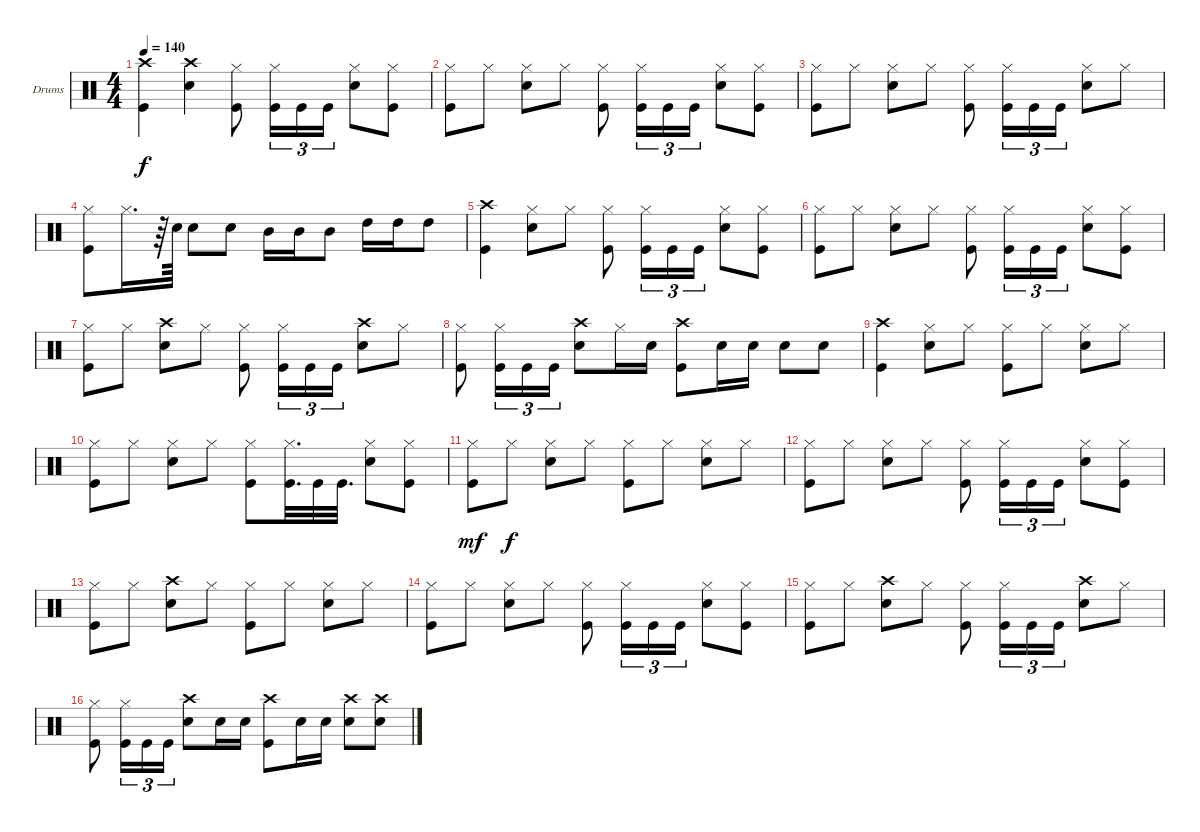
\defaultSystemsLayout 4
\bracketExtendMode groupsimilarinstruments
\firstSystemTrackNameOrientation horizontal
\otherSystemsTrackNameOrientation horizontal
\track ("Drums" "Drums") {instrument percussion}
\staff {score}
\articulation defaults
\ts (4 4)
\tempo 140
\clef neutral
\ks c
("Kick (hit)" "Crash high (hit)").4{dy f} ("Snare (hit) 2" "Crash high (hit)").4 ("Kick (hit)" "Hi-Hat (closed)").8 ("Kick (hit)" "Hi-Hat (closed)").16{tu (3 2)} "Kick (hit)".16{tu (3 2)} "Kick (hit)".16{tu (3 2)} ("Snare (hit) 2" "Hi-Hat (closed)").8 ("Kick (hit)" "Hi-Hat (closed)").8 |
("Hi-Hat (closed)" "Kick (hit)").8 "Hi-Hat (closed)".8 ("Snare (hit) 2" "Hi-Hat (closed)").8 "Hi-Hat (closed)".8 ("Kick (hit)" "Hi-Hat (closed)").8 ("Kick (hit)" "Hi-Hat (closed)").16{tu (3 2)} "Kick (hit)".16{tu (3 2)} "Kick (hit)".16{tu (3 2)} ("Snare (hit) 2" "Hi-Hat (closed)").8 ("Kick (hit)" "Hi-Hat (closed)").8 |
("Hi-Hat (closed)" "Kick (hit)").8 "Hi-Hat (closed)".8 ("Snare (hit) 2" "Hi-Hat (closed)").8 "Hi-Hat (closed)".8 ("Kick (hit)" "Hi-Hat (closed)").8 ("Kick (hit)" "Hi-Hat (closed)").16{tu (3 2)} "Kick (hit)".16{tu (3 2)} "Kick (hit)".16{tu (3 2)} ("Snare (hit) 2" "Hi-Hat (closed)").8 "Hi-Hat (closed)".8 |
("Kick (hit)" "Hi-Hat (closed)").8 "Hi-Hat (closed)".16{d} r.64 "Snare (hit) 2".64 "Snare (hit) 2".8 "Snare (hit) 2".8 "Mid Tom (hit)".16 "Mid Tom (hit)".16 "Mid Tom (hit)".8 "High Tom (hit)".16 "High Tom (hit)".16 "High Tom (hit)".8 |
("Kick (hit)" "Crash high (hit)").4 ("Hi-Hat (closed)" "Snare (hit) 2").8 "Hi-Hat (closed)".8 ("Kick (hit)" "Hi-Hat (closed)").8 ("Kick (hit)" "Hi-Hat (closed)").16{tu (3 2)} "Kick (hit)".16{tu (3 2)} "Kick (hit)".16{tu (3 2)} ("Snare (hit) 2" "Hi-Hat (closed)").8 ("Kick (hit)" "Hi-Hat (closed)").8 |
("Hi-Hat (closed)" "Kick (hit)").8 "Hi-Hat (closed)".8 ("Snare (hit) 2" "Hi-Hat (closed)").8 "Hi-Hat (closed)".8 ("Kick (hit)" "Hi-Hat (closed)").8 ("Kick (hit)" "Hi-Hat (closed)").16{tu (3 2)} "Kick (hit)".16{tu (3 2)} "Kick (hit)".16{tu (3 2)} ("Snare (hit) 2" "Hi-Hat (closed)").8 ("Kick (hit)" "Hi-Hat (closed)").8 |
("Kick (hit)" "Hi-Hat (closed)").8 "Hi-Hat (closed)".8 ("Snare (hit) 2" "Crash high (hit)").8 "Hi-Hat (closed)".8 ("Kick (hit)" "Hi-Hat (closed)").8 ("Kick (hit)" "Hi-Hat (closed)").16{tu (3 2)} "Kick (hit)".16{tu (3 2)} "Kick (hit)".16{tu (3 2)} ("Crash high (hit)" "Snare (hit) 2").8 "Hi-Hat (closed)".8 |
("Hi-Hat (closed)" "Kick (hit)").8 ("Hi-Hat (closed)" "Kick (hit)").16{tu (3 2)} "Kick (hit)".16{tu (3 2)} "Kick (hit)".16{tu (3 2)} ("Snare (hit) 2" "Crash high (hit)").8 "Hi-Hat (closed)".16 "Snare (hit) 2".16 ("Kick (hit)" "Crash high (hit)").8 "Snare (hit) 2".16 "Snare (hit) 2".16 "Snare (hit) 2".8 "Snare (hit) 2".8 |
("Kick (hit)" "Crash high (hit)").4 ("Snare (hit) 2" "Hi-Hat (closed)").8 "Hi-Hat (closed)".8 ("Hi-Hat (closed)" "Kick (hit)").8 "Hi-Hat (closed)".8 ("Snare (hit) 2" "Hi-Hat (closed)").8 "Hi-Hat (closed)".8 |
("Hi-Hat (closed)" "Kick (hit)").8 "Hi-Hat (closed)".8 ("Snare (hit) 2" "Hi-Hat (closed)").8 "Hi-Hat (closed)".8 ("Kick (hit)" "Hi-Hat (closed)").8 ("Kick (hit)" "Hi-Hat (closed)").32{d} "Kick (hit)".32 "Kick (hit)".32{d} ("Snare (hit) 2" "Hi-Hat (closed)").8 ("Kick (hit)" "Hi-Hat (closed)").8 |
("Kick (hit)" "Hi-Hat (closed)").8{dy mf} "Hi-Hat (closed)".8{dy f} ("Snare (hit) 2" "Hi-Hat (closed)").8 "Hi-Hat (closed)".8 ("Kick (hit)" "Hi-Hat (closed)").8 "Hi-Hat (closed)".8 ("Hi-Hat (closed)" "Snare (hit) 2").8 "Hi-Hat (closed)".8 |
("Hi-Hat (closed)" "Kick (hit)").8 "Hi-Hat (closed)".8 ("Snare (hit) 2" "Hi-Hat (closed)").8 "Hi-Hat (closed)".8 ("Kick (hit)" "Hi-Hat (closed)").8 ("Kick (hit)" "Hi-Hat (closed)").16{tu (3 2)} "Kick (hit)".16{tu (3 2)} "Kick (hit)".16{tu (3 2)} ("Snare (hit) 2" "Hi-Hat (closed)").8 ("Kick (hit)" "Hi-Hat (closed)").8 |
("Hi-Hat (closed)" "Kick (hit)").8 "Hi-Hat (closed)".8 ("Crash high (hit)" "Snare (hit) 2").8 "Hi-Hat (closed)".8 ("Hi-Hat (closed)" "Kick (hit)").8 "Hi-Hat (closed)".8 ("Snare (hit) 2" "Hi-Hat (closed)").8 "Hi-Hat (closed)".8 |
("Hi-Hat (closed)" "Kick (hit)").8 "Hi-Hat (closed)".8 ("Snare (hit) 2" "Hi-Hat (closed)").8 "Hi-Hat (closed)".8 ("Kick (hit)" "Hi-Hat (closed)").8 ("Kick (hit)" "Hi-Hat (closed)").16{tu (3 2)} "Kick (hit)".16{tu (3 2)} "Kick (hit)".16{tu (3 2)} ("Snare (hit) 2" "Hi-Hat (closed)").8 ("Kick (hit)" "Hi-Hat (closed)").8 |
("Kick (hit)" "Hi-Hat (closed)").8 "Hi-Hat (closed)".8 ("Snare (hit) 2" "Crash high (hit)").8 "Hi-Hat (closed)".8 ("Kick (hit)" "Hi-Hat (closed)").8 ("Kick (hit)" "Hi-Hat (closed)").16{tu (3 2)} "Kick (hit)".16{tu (3 2)} "Kick (hit)".16{tu (3 2)} ("Crash high (hit)" "Snare (hit) 2").8 "Hi-Hat (closed)".8 |
("Hi-Hat (closed)" "Kick (hit)").8 ("Hi-Hat (closed)" "Kick (hit)").16{tu (3 2)} "Kick (hit)".16{tu (3 2)} "Kick (hit)".16{tu (3 2)} ("Snare (hit) 2" "Crash high (hit)").8 "Snare (hit) 2".16 "Snare (hit) 2".16 ("Kick (hit)" "Crash high (hit)").8 "Snare (hit) 2".16 "Snare (hit) 2".16 ("Crash high (hit)" "Snare (hit) 2").8 ("Crash high (hit)" "Snare (hit) 2").8
